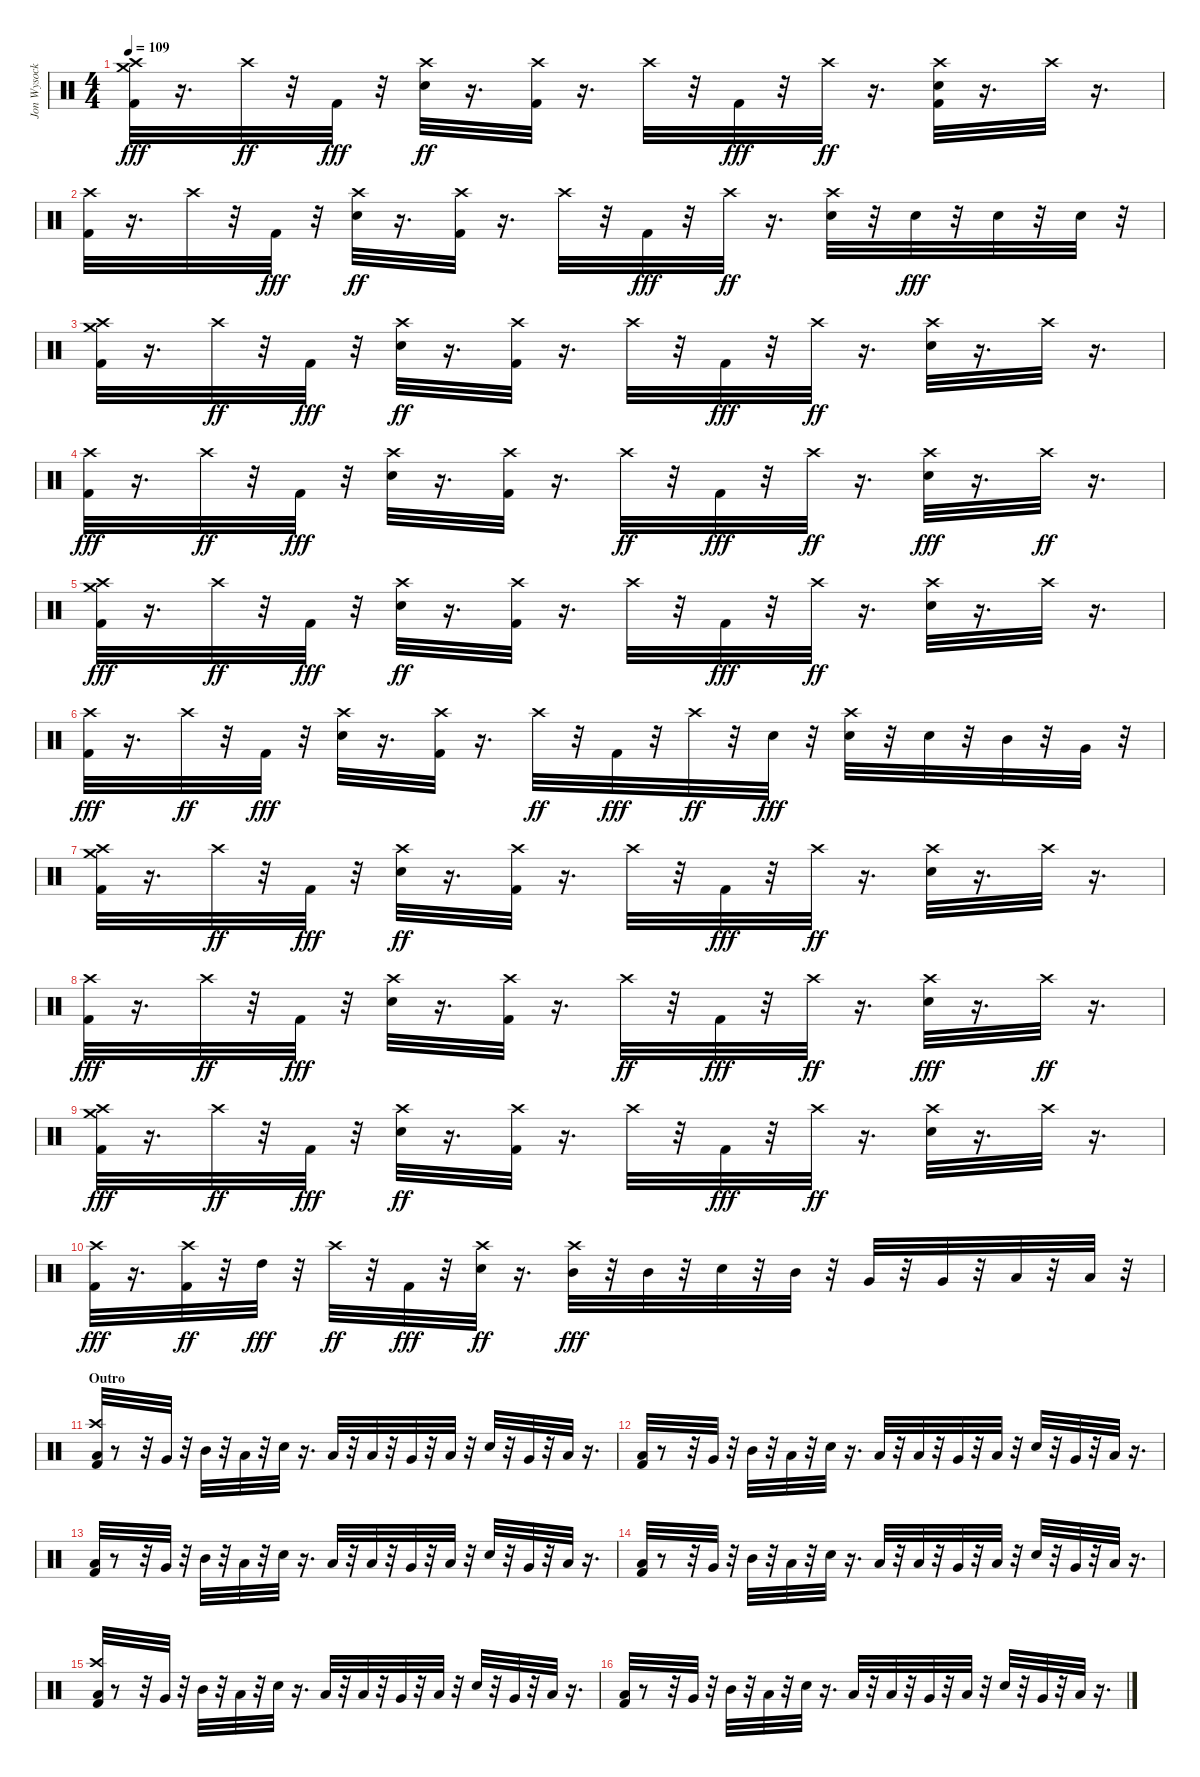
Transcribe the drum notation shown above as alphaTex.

\track ("Jon Wysocki - Drums" "Jon Wysock") {instrument percussion}
\staff {score}
\articulation defaults
\ts (4 4)
\tempo 109
\clef neutral
\ks c
("Kick (hit) 2" "Crash high (hit)" "Crash medium (hit)").32{dy fff} r.16{d} "Crash high (hit)".32{dy ff} r.32 "Kick (hit) 2".32{dy fff} r.32 ("Electric Snare (hit)" "Crash high (hit)").32{dy ff} r.16{d} ("Kick (hit) 2" "Crash high (hit)").32 r.16{d} "Crash high (hit)".32 r.32 "Kick (hit) 2".32{dy fff} r.32 "Crash high (hit)".32{dy ff} r.16{d} ("Kick (hit) 2" "Electric Snare (hit)" "Crash high (hit)").32 r.16{d} "Crash high (hit)".32 r.16{d} |
("Kick (hit) 2" "Crash high (hit)").32 r.16{d} "Crash high (hit)".32 r.32 "Kick (hit) 2".32{dy fff} r.32 ("Electric Snare (hit)" "Crash high (hit)").32{dy ff} r.16{d} ("Kick (hit) 2" "Crash high (hit)").32 r.16{d} "Crash high (hit)".32 r.32 "Kick (hit) 2".32{dy fff} r.32 "Crash high (hit)".32{dy ff} r.16{d} ("Electric Snare (hit)" "Crash high (hit)").32 r.32 "Electric Snare (hit)".32{dy fff} r.32 "Electric Snare (hit)".32 r.32 "Electric Snare (hit)".32 r.32 |
("Kick (hit) 2" "Crash high (hit)" "Crash medium (hit)").32 r.16{d} "Crash high (hit)".32{dy ff} r.32 "Kick (hit) 2".32{dy fff} r.32 ("Electric Snare (hit)" "Crash high (hit)").32{dy ff} r.16{d} ("Kick (hit) 2" "Crash high (hit)").32 r.16{d} "Crash high (hit)".32 r.32 "Kick (hit) 2".32{dy fff} r.32 "Crash high (hit)".32{dy ff} r.16{d} ("Electric Snare (hit)" "Crash high (hit)").32 r.16{d} "Crash high (hit)".32 r.16{d} |
("Crash high (hit)" "Kick (hit) 2").32{dy fff} r.16{d} "Crash high (hit)".32{dy ff} r.32 "Kick (hit) 2".32{dy fff} r.32 ("Crash high (hit)" "Electric Snare (hit)").32 r.16{d} ("Crash high (hit)" "Kick (hit) 2").32 r.16{d} "Crash high (hit)".32{dy ff} r.32 "Kick (hit) 2".32{dy fff} r.32 "Crash high (hit)".32{dy ff} r.16{d} ("Crash high (hit)" "Electric Snare (hit)").32{dy fff} r.16{d} "Crash high (hit)".32{dy ff} r.16{d} |
("Kick (hit) 2" "Crash high (hit)" "Crash medium (hit)").32{dy fff} r.16{d} "Crash high (hit)".32{dy ff} r.32 "Kick (hit) 2".32{dy fff} r.32 ("Electric Snare (hit)" "Crash high (hit)").32{dy ff} r.16{d} ("Kick (hit) 2" "Crash high (hit)").32 r.16{d} "Crash high (hit)".32 r.32 "Kick (hit) 2".32{dy fff} r.32 "Crash high (hit)".32{dy ff} r.16{d} ("Electric Snare (hit)" "Crash high (hit)").32 r.16{d} "Crash high (hit)".32 r.16{d} |
("Crash high (hit)" "Kick (hit) 2").32{dy fff} r.16{d} "Crash high (hit)".32{dy ff} r.32 "Kick (hit) 2".32{dy fff} r.32 ("Crash high (hit)" "Electric Snare (hit)").32 r.16{d} ("Crash high (hit)" "Kick (hit) 2").32 r.16{d} "Crash high (hit)".32{dy ff} r.32 "Kick (hit) 2".32{dy fff} r.32 "Crash high (hit)".32{dy ff} r.32 "Electric Snare (hit)".32{dy fff} r.32 ("Crash high (hit)" "Electric Snare (hit)").32 r.32 "Electric Snare (hit)".32 r.32 "Mid Tom (hit)".32 r.32 "Very Low Tom (hit)".32 r.32 |
("Kick (hit) 2" "Crash high (hit)" "Crash medium (hit)").32 r.16{d} "Crash high (hit)".32{dy ff} r.32 "Kick (hit) 2".32{dy fff} r.32 ("Electric Snare (hit)" "Crash high (hit)").32{dy ff} r.16{d} ("Kick (hit) 2" "Crash high (hit)").32 r.16{d} "Crash high (hit)".32 r.32 "Kick (hit) 2".32{dy fff} r.32 "Crash high (hit)".32{dy ff} r.16{d} ("Electric Snare (hit)" "Crash high (hit)").32 r.16{d} "Crash high (hit)".32 r.16{d} |
("Crash high (hit)" "Kick (hit) 2").32{dy fff} r.16{d} "Crash high (hit)".32{dy ff} r.32 "Kick (hit) 2".32{dy fff} r.32 ("Crash high (hit)" "Electric Snare (hit)").32 r.16{d} ("Crash high (hit)" "Kick (hit) 2").32 r.16{d} "Crash high (hit)".32{dy ff} r.32 "Kick (hit) 2".32{dy fff} r.32 "Crash high (hit)".32{dy ff} r.16{d} ("Crash high (hit)" "Electric Snare (hit)").32{dy fff} r.16{d} "Crash high (hit)".32{dy ff} r.16{d} |
("Kick (hit) 2" "Crash high (hit)" "Crash medium (hit)").32{dy fff} r.16{d} "Crash high (hit)".32{dy ff} r.32 "Kick (hit) 2".32{dy fff} r.32 ("Electric Snare (hit)" "Crash high (hit)").32{dy ff} r.16{d} ("Kick (hit) 2" "Crash high (hit)").32 r.16{d} "Crash high (hit)".32 r.32 "Kick (hit) 2".32{dy fff} r.32 "Crash high (hit)".32{dy ff} r.16{d} ("Electric Snare (hit)" "Crash high (hit)").32 r.16{d} "Crash high (hit)".32 r.16{d} |
("Crash high (hit)" "Kick (hit) 2").32{dy fff} r.16{d} ("Kick (hit) 2" "Crash high (hit)").32{dy ff} r.32 "High Tom (hit)".32{dy fff} r.32 "Crash high (hit)".32{dy ff} r.32 "Kick (hit) 2".32{dy fff} r.32 ("Electric Snare (hit)" "Crash high (hit)").32{dy ff} r.16{d} ("Crash high (hit)" "Mid Tom (hit)").32{dy fff} r.32 "Mid Tom (hit)".32 r.32 "Electric Snare (hit)".32 r.32 "Mid Tom (hit)".32 r.32 "Very Low Tom (hit)".32 r.32 "Very Low Tom (hit)".32 r.32 "Low Floor Tom (hit)".32 r.32 "Low Floor Tom (hit)".32 r.32 |
\section ("" "Outro")
("Low Tom (hit)" "Crash high (hit)" "Kick (hit) 2").32 r.8 r.32 "Very Low Tom (hit)".32 r.32 "Mid Tom (hit)".32 r.32 "Low Floor Tom (hit)".32 r.32 "Electric Snare (hit)".32 r.16{d} "Low Tom (hit)".32 r.32 "Low Tom (hit)".32 r.32 "Very Low Tom (hit)".32 r.32 "Low Floor Tom (hit)".32 r.32 "Electric Snare (hit)".32 r.32 "Very Low Tom (hit)".32 r.32 "Low Floor Tom (hit)".32 r.16{d} |
("Low Tom (hit)" "Kick (hit) 2").32 r.8 r.32 "Very Low Tom (hit)".32 r.32 "Mid Tom (hit)".32 r.32 "Low Floor Tom (hit)".32 r.32 "Electric Snare (hit)".32 r.16{d} "Low Tom (hit)".32 r.32 "Low Tom (hit)".32 r.32 "Very Low Tom (hit)".32 r.32 "Low Floor Tom (hit)".32 r.32 "Electric Snare (hit)".32 r.32 "Very Low Tom (hit)".32 r.32 "Low Floor Tom (hit)".32 r.16{d} |
("Low Tom (hit)" "Kick (hit) 2").32 r.8 r.32 "Very Low Tom (hit)".32 r.32 "Mid Tom (hit)".32 r.32 "Low Floor Tom (hit)".32 r.32 "Electric Snare (hit)".32 r.16{d} "Low Tom (hit)".32 r.32 "Low Tom (hit)".32 r.32 "Very Low Tom (hit)".32 r.32 "Low Floor Tom (hit)".32 r.32 "Electric Snare (hit)".32 r.32 "Very Low Tom (hit)".32 r.32 "Low Floor Tom (hit)".32 r.16{d} |
("Low Tom (hit)" "Kick (hit) 2").32 r.8 r.32 "Very Low Tom (hit)".32 r.32 "Mid Tom (hit)".32 r.32 "Low Floor Tom (hit)".32 r.32 "Electric Snare (hit)".32 r.16{d} "Low Tom (hit)".32 r.32 "Low Tom (hit)".32 r.32 "Very Low Tom (hit)".32 r.32 "Low Floor Tom (hit)".32 r.32 "Electric Snare (hit)".32 r.32 "Very Low Tom (hit)".32 r.32 "Low Floor Tom (hit)".32 r.16{d} |
("Kick (hit) 2" "Crash high (hit)" "Low Tom (hit)").32 r.8 r.32 "Very Low Tom (hit)".32 r.32 "Mid Tom (hit)".32 r.32 "Low Floor Tom (hit)".32 r.32 "Electric Snare (hit)".32 r.16{d} "Low Tom (hit)".32 r.32 "Low Tom (hit)".32 r.32 "Very Low Tom (hit)".32 r.32 "Low Floor Tom (hit)".32 r.32 "Electric Snare (hit)".32 r.32 "Very Low Tom (hit)".32 r.32 "Low Floor Tom (hit)".32 r.16{d} |
("Kick (hit) 2" "Low Tom (hit)").32 r.8 r.32 "Very Low Tom (hit)".32 r.32 "Mid Tom (hit)".32 r.32 "Low Floor Tom (hit)".32 r.32 "Electric Snare (hit)".32 r.16{d} "Low Tom (hit)".32 r.32 "Low Tom (hit)".32 r.32 "Very Low Tom (hit)".32 r.32 "Low Floor Tom (hit)".32 r.32 "Electric Snare (hit)".32 r.32 "Very Low Tom (hit)".32 r.32 "Low Floor Tom (hit)".32 r.16{d}
